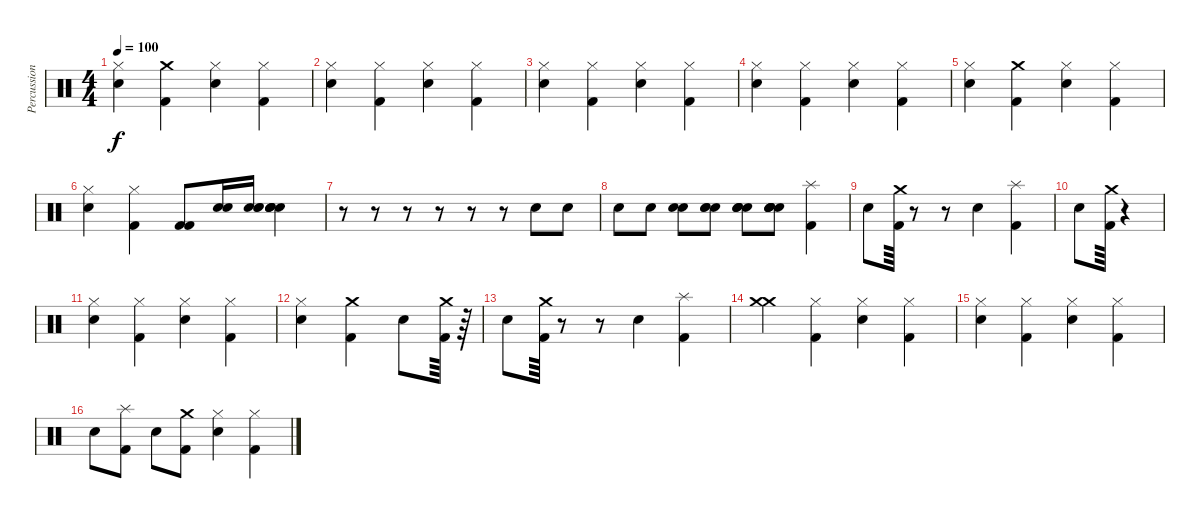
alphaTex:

\track ("Percussion" "Percussion") {instrument percussion}
\staff {score}
\articulation defaults
\ts (4 4)
\tempo 100
\clef neutral
\ks c
("Hi-Hat (closed)" "Electric Snare (hit)").4{dy f} ("Crash medium (hit)" "Kick (hit) 2").4 ("Hi-Hat (closed)" "Electric Snare (hit)").4 ("Hi-Hat (closed)" "Kick (hit) 2").4 |
("Hi-Hat (closed)" "Electric Snare (hit)").4 ("Hi-Hat (closed)" "Kick (hit) 2").4 ("Hi-Hat (closed)" "Electric Snare (hit)").4 ("Hi-Hat (closed)" "Kick (hit) 2").4 |
("Hi-Hat (closed)" "Electric Snare (hit)").4 ("Hi-Hat (closed)" "Kick (hit) 2").4 ("Hi-Hat (closed)" "Electric Snare (hit)").4 ("Hi-Hat (closed)" "Kick (hit) 2").4 |
("Hi-Hat (closed)" "Electric Snare (hit)").4 ("Hi-Hat (closed)" "Kick (hit) 2").4 ("Hi-Hat (closed)" "Electric Snare (hit)").4 ("Hi-Hat (closed)" "Kick (hit) 2").4 |
("Hi-Hat (closed)" "Electric Snare (hit)").4 ("Crash medium (hit)" "Kick (hit) 2").4 ("Hi-Hat (closed)" "Electric Snare (hit)").4 ("Hi-Hat (closed)" "Kick (hit) 2").4 |
("Hi-Hat (closed)" "Electric Snare (hit)").4 ("Hi-Hat (closed)" "Kick (hit) 2").4 ("Kick (hit) 2" "Kick (hit) 2").8 ("Electric Snare (hit)" "Electric Snare (hit)").16 ("Electric Snare (hit)" "Electric Snare (hit)" "Electric Snare (hit)").16 ("Electric Snare (hit)" "Electric Snare (hit)" "Electric Snare (hit)" "Electric Snare (hit)").4 |
r.8 r.8 r.8 r.8 r.8 r.8 "Electric Snare (hit)".8 "Electric Snare (hit)".8 |
"Electric Snare (hit)".8 "Electric Snare (hit)".8 ("Electric Snare (hit)" "Electric Snare (hit)").8 ("Electric Snare (hit)" "Electric Snare (hit)" "Electric Snare (hit)").8 ("Electric Snare (hit)" "Electric Snare (hit)" "Electric Snare (hit)" "Electric Snare (hit)").8 ("Electric Snare (hit)" "Electric Snare (hit)" "Electric Snare (hit)" "Electric Snare (hit)" "Electric Snare (hit)").8 ("Splash (hit)" "Kick (hit) 2").4 |
"Electric Snare (hit)".8 ("Crash medium (hit)" "Kick (hit) 2").64 r.8 r.8 "Electric Snare (hit)".4 ("Splash (hit)" "Kick (hit) 2").4 |
"Electric Snare (hit)".8 ("Crash medium (hit)" "Kick (hit) 2").64 r.4 |
("Hi-Hat (closed)" "Electric Snare (hit)").4 ("Hi-Hat (closed)" "Kick (hit) 2").4 ("Hi-Hat (closed)" "Electric Snare (hit)").4 ("Hi-Hat (closed)" "Kick (hit) 2").4 |
("Hi-Hat (closed)" "Electric Snare (hit)").4 ("Crash medium (hit)" "Kick (hit) 2").4 "Electric Snare (hit)".8 ("Crash medium (hit)" "Kick (hit) 2").64 r.64 |
"Electric Snare (hit)".8 ("Crash medium (hit)" "Kick (hit) 2").64 r.8 r.8 "Electric Snare (hit)".4 ("Splash (hit)" "Kick (hit) 2").4 |
("Crash medium (hit)" "Crash medium (hit)").4 ("Hi-Hat (closed)" "Kick (hit) 2").4 ("Hi-Hat (closed)" "Electric Snare (hit)").4 ("Hi-Hat (closed)" "Kick (hit) 2").4 |
("Hi-Hat (closed)" "Electric Snare (hit)").4 ("Hi-Hat (closed)" "Kick (hit) 2").4 ("Hi-Hat (closed)" "Electric Snare (hit)").4 ("Hi-Hat (closed)" "Kick (hit) 2").4 |
"Electric Snare (hit)".8 ("Splash (hit)" "Kick (hit) 2").8 "Electric Snare (hit)".8 ("Crash medium (hit)" "Kick (hit) 2").8 ("Hi-Hat (closed)" "Electric Snare (hit)").4 ("Hi-Hat (closed)" "Kick (hit) 2").4
